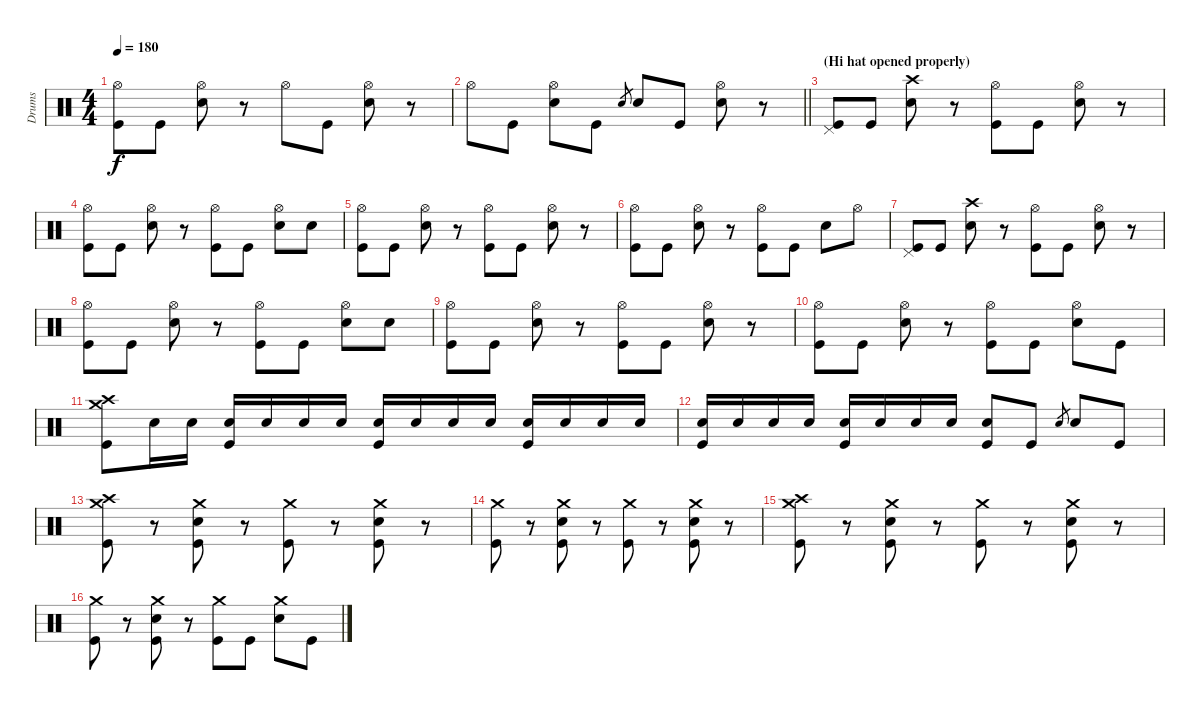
\track ("Drums" "Drums") {instrument percussion}
\staff {score}
\articulation defaults
\ts (4 4)
\tempo 180
\clef neutral
\ks c
("Hi-Hat (open)" "Kick (hit)").8{dy f} "Kick (hit)".8 ("Hi-Hat (open)" "Snare (hit) 2").8 r.8 "Hi-Hat (open)".8 "Kick (hit)".8 ("Hi-Hat (open)" "Snare (hit) 2").8 r.8 |
\barLineRight lightlight "Hi-Hat (open)".8 "Kick (hit)".8
("Hi-Hat (open)" "Snare (hit) 2").8 "Kick (hit)".8 "Snare (hit) 2".8{gr} "Snare (hit) 2".8 "Kick (hit)".8 ("Hi-Hat (open)" "Snare (hit) 2").8 r.8 |
\section ("" "(Hi hat opened properly)")
("Pedal Hi-Hat (hit)" "Kick (hit)").8 "Kick (hit)".8 ("Snare (hit) 2" "Crash high (hit)").8 r.8 ("Hi-Hat (open)" "Kick (hit)").8 "Kick (hit)".8 ("Hi-Hat (open)" "Snare (hit) 2").8 r.8 |
("Hi-Hat (open)" "Kick (hit)").8 "Kick (hit)".8 ("Hi-Hat (open)" "Snare (hit) 2").8 r.8 ("Hi-Hat (open)" "Kick (hit)").8 "Kick (hit)".8 ("Hi-Hat (open)" "Snare (hit) 2").8 "Snare (hit) 2".8 |
("Hi-Hat (open)" "Kick (hit)").8 "Kick (hit)".8 ("Hi-Hat (open)" "Snare (hit) 2").8 r.8 ("Hi-Hat (open)" "Kick (hit)").8 "Kick (hit)".8 ("Hi-Hat (open)" "Snare (hit) 2").8 r.8 |
("Hi-Hat (open)" "Kick (hit)").8 "Kick (hit)".8 ("Hi-Hat (open)" "Snare (hit) 2").8 r.8 ("Hi-Hat (open)" "Kick (hit)").8 "Kick (hit)".8 "Snare (hit) 2".8 "Hi-Hat (open)".8 |
("Kick (hit)" "Pedal Hi-Hat (hit)").8 "Kick (hit)".8 ("Crash high (hit)" "Snare (hit) 2").8 r.8 ("Hi-Hat (open)" "Kick (hit)").8 "Kick (hit)".8 ("Hi-Hat (open)" "Snare (hit) 2").8 r.8 |
("Hi-Hat (open)" "Kick (hit)").8 "Kick (hit)".8 ("Hi-Hat (open)" "Snare (hit) 2").8 r.8 ("Hi-Hat (open)" "Kick (hit)").8 "Kick (hit)".8 ("Hi-Hat (open)" "Snare (hit) 2").8 "Snare (hit) 2".8 |
("Hi-Hat (open)" "Kick (hit)").8 "Kick (hit)".8 ("Hi-Hat (open)" "Snare (hit) 2").8 r.8 ("Hi-Hat (open)" "Kick (hit)").8 "Kick (hit)".8 ("Hi-Hat (open)" "Snare (hit) 2").8 r.8 |
("Hi-Hat (open)" "Kick (hit)").8 "Kick (hit)".8 ("Hi-Hat (open)" "Snare (hit) 2").8 r.8 ("Hi-Hat (open)" "Kick (hit)").8 "Kick (hit)".8 ("Hi-Hat (open)" "Snare (hit) 2").8 "Kick (hit)".8 |
("Crash high (hit)" "Crash medium (hit)" "Kick (hit)").8 "Snare (hit) 2".16 "Snare (hit) 2".16 ("Snare (hit) 2" "Kick (hit)").16 "Snare (hit) 2".16 "Snare (hit) 2".16 "Snare (hit) 2".16 ("Snare (hit) 2" "Kick (hit)").16 "Snare (hit) 2".16 "Snare (hit) 2".16 "Snare (hit) 2".16 ("Snare (hit) 2" "Kick (hit)").16 "Snare (hit) 2".16 "Snare (hit) 2".16 "Snare (hit) 2".16 |
("Snare (hit) 2" "Kick (hit)").16 "Snare (hit) 2".16 "Snare (hit) 2".16 "Snare (hit) 2".16 ("Snare (hit) 2" "Kick (hit)").16 "Snare (hit) 2".16 "Snare (hit) 2".16 "Snare (hit) 2".16 ("Snare (hit) 2" "Kick (hit)").8 "Kick (hit)".8 "Snare (hit) 2".8{gr} "Snare (hit) 2".8 "Kick (hit)".8 |
("Crash high (hit)" "Crash medium (hit)" "Kick (hit)").8 r.8 ("Kick (hit)" "Snare (hit) 2" "Crash medium (hit)").8 r.8 ("Crash medium (hit)" "Kick (hit)").8 r.8 ("Crash medium (hit)" "Kick (hit)" "Snare (hit) 2").8 r.8 |
("Crash medium (hit)" "Kick (hit)").8 r.8 ("Kick (hit)" "Snare (hit) 2" "Crash medium (hit)").8 r.8 ("Crash medium (hit)" "Kick (hit)").8 r.8 ("Crash medium (hit)" "Kick (hit)" "Snare (hit) 2").8 r.8 |
("Crash high (hit)" "Crash medium (hit)" "Kick (hit)").8 r.8 ("Kick (hit)" "Snare (hit) 2" "Crash medium (hit)").8 r.8 ("Crash medium (hit)" "Kick (hit)").8 r.8 ("Crash medium (hit)" "Kick (hit)" "Snare (hit) 2").8 r.8 |
("Crash medium (hit)" "Kick (hit)").8 r.8 ("Kick (hit)" "Snare (hit) 2" "Crash medium (hit)").8 r.8 ("Crash medium (hit)" "Kick (hit)").8 "Kick (hit)".8 ("Crash medium (hit)" "Snare (hit) 2").8 "Kick (hit)".8
